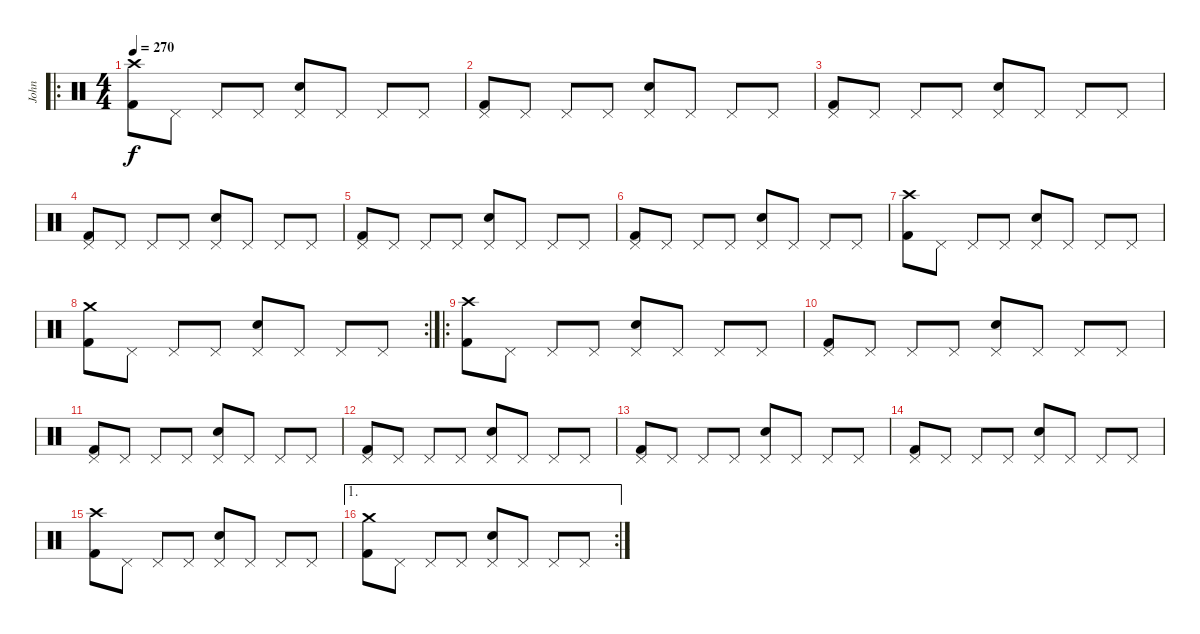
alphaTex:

\track ("John" "John") {instrument percussion}
\staff {score}
\articulation defaults
\ro
\ts (4 4)
\tempo 270
\clef neutral
\ks c
("Crash high (hit)" "Kick (hit) 2").8{dy f} "Pedal Hi-Hat (hit)".8 "Pedal Hi-Hat (hit)".8 "Pedal Hi-Hat (hit)".8 ("Pedal Hi-Hat (hit)" "Electric Snare (hit)").8 "Pedal Hi-Hat (hit)".8 "Pedal Hi-Hat (hit)".8 "Pedal Hi-Hat (hit)".8 |
("Pedal Hi-Hat (hit)" "Kick (hit) 2").8 "Pedal Hi-Hat (hit)".8 "Pedal Hi-Hat (hit)".8 "Pedal Hi-Hat (hit)".8 ("Pedal Hi-Hat (hit)" "Electric Snare (hit)").8 "Pedal Hi-Hat (hit)".8 "Pedal Hi-Hat (hit)".8 "Pedal Hi-Hat (hit)".8 |
("Pedal Hi-Hat (hit)" "Kick (hit) 2").8 "Pedal Hi-Hat (hit)".8 "Pedal Hi-Hat (hit)".8 "Pedal Hi-Hat (hit)".8 ("Pedal Hi-Hat (hit)" "Electric Snare (hit)").8 "Pedal Hi-Hat (hit)".8 "Pedal Hi-Hat (hit)".8 "Pedal Hi-Hat (hit)".8 |
("Pedal Hi-Hat (hit)" "Kick (hit) 2").8 "Pedal Hi-Hat (hit)".8 "Pedal Hi-Hat (hit)".8 "Pedal Hi-Hat (hit)".8 ("Pedal Hi-Hat (hit)" "Electric Snare (hit)").8 "Pedal Hi-Hat (hit)".8 "Pedal Hi-Hat (hit)".8 "Pedal Hi-Hat (hit)".8 |
("Pedal Hi-Hat (hit)" "Kick (hit) 2").8 "Pedal Hi-Hat (hit)".8 "Pedal Hi-Hat (hit)".8 "Pedal Hi-Hat (hit)".8 ("Pedal Hi-Hat (hit)" "Electric Snare (hit)").8 "Pedal Hi-Hat (hit)".8 "Pedal Hi-Hat (hit)".8 "Pedal Hi-Hat (hit)".8 |
("Pedal Hi-Hat (hit)" "Kick (hit) 2").8 "Pedal Hi-Hat (hit)".8 "Pedal Hi-Hat (hit)".8 "Pedal Hi-Hat (hit)".8 ("Pedal Hi-Hat (hit)" "Electric Snare (hit)").8 "Pedal Hi-Hat (hit)".8 "Pedal Hi-Hat (hit)".8 "Pedal Hi-Hat (hit)".8 |
("Crash high (hit)" "Kick (hit) 2").8 "Pedal Hi-Hat (hit)".8 "Pedal Hi-Hat (hit)".8 "Pedal Hi-Hat (hit)".8 ("Pedal Hi-Hat (hit)" "Electric Snare (hit)").8 "Pedal Hi-Hat (hit)".8 "Pedal Hi-Hat (hit)".8 "Pedal Hi-Hat (hit)".8 |
\rc 2
("Crash medium (hit)" "Kick (hit) 2").8 "Pedal Hi-Hat (hit)".8 "Pedal Hi-Hat (hit)".8 "Pedal Hi-Hat (hit)".8 ("Pedal Hi-Hat (hit)" "Electric Snare (hit)").8 "Pedal Hi-Hat (hit)".8 "Pedal Hi-Hat (hit)".8 "Pedal Hi-Hat (hit)".8 |
\ro
("Crash high (hit)" "Kick (hit) 2").8 "Pedal Hi-Hat (hit)".8 "Pedal Hi-Hat (hit)".8 "Pedal Hi-Hat (hit)".8 ("Pedal Hi-Hat (hit)" "Electric Snare (hit)").8 "Pedal Hi-Hat (hit)".8 "Pedal Hi-Hat (hit)".8 "Pedal Hi-Hat (hit)".8 |
("Pedal Hi-Hat (hit)" "Kick (hit) 2").8 "Pedal Hi-Hat (hit)".8 "Pedal Hi-Hat (hit)".8 "Pedal Hi-Hat (hit)".8 ("Pedal Hi-Hat (hit)" "Electric Snare (hit)").8 "Pedal Hi-Hat (hit)".8 "Pedal Hi-Hat (hit)".8 "Pedal Hi-Hat (hit)".8 |
("Pedal Hi-Hat (hit)" "Kick (hit) 2").8 "Pedal Hi-Hat (hit)".8 "Pedal Hi-Hat (hit)".8 "Pedal Hi-Hat (hit)".8 ("Pedal Hi-Hat (hit)" "Electric Snare (hit)").8 "Pedal Hi-Hat (hit)".8 "Pedal Hi-Hat (hit)".8 "Pedal Hi-Hat (hit)".8 |
("Pedal Hi-Hat (hit)" "Kick (hit) 2").8 "Pedal Hi-Hat (hit)".8 "Pedal Hi-Hat (hit)".8 "Pedal Hi-Hat (hit)".8 ("Pedal Hi-Hat (hit)" "Electric Snare (hit)").8 "Pedal Hi-Hat (hit)".8 "Pedal Hi-Hat (hit)".8 "Pedal Hi-Hat (hit)".8 |
("Pedal Hi-Hat (hit)" "Kick (hit) 2").8 "Pedal Hi-Hat (hit)".8 "Pedal Hi-Hat (hit)".8 "Pedal Hi-Hat (hit)".8 ("Pedal Hi-Hat (hit)" "Electric Snare (hit)").8 "Pedal Hi-Hat (hit)".8 "Pedal Hi-Hat (hit)".8 "Pedal Hi-Hat (hit)".8 |
("Pedal Hi-Hat (hit)" "Kick (hit) 2").8 "Pedal Hi-Hat (hit)".8 "Pedal Hi-Hat (hit)".8 "Pedal Hi-Hat (hit)".8 ("Pedal Hi-Hat (hit)" "Electric Snare (hit)").8 "Pedal Hi-Hat (hit)".8 "Pedal Hi-Hat (hit)".8 "Pedal Hi-Hat (hit)".8 |
("Crash high (hit)" "Kick (hit) 2").8 "Pedal Hi-Hat (hit)".8 "Pedal Hi-Hat (hit)".8 "Pedal Hi-Hat (hit)".8 ("Pedal Hi-Hat (hit)" "Electric Snare (hit)").8 "Pedal Hi-Hat (hit)".8 "Pedal Hi-Hat (hit)".8 "Pedal Hi-Hat (hit)".8 |
\ae 1
\rc 2
("Crash medium (hit)" "Kick (hit) 2").8 "Pedal Hi-Hat (hit)".8 "Pedal Hi-Hat (hit)".8 "Pedal Hi-Hat (hit)".8 ("Pedal Hi-Hat (hit)" "Electric Snare (hit)").8 "Pedal Hi-Hat (hit)".8 "Pedal Hi-Hat (hit)".8 "Pedal Hi-Hat (hit)".8
